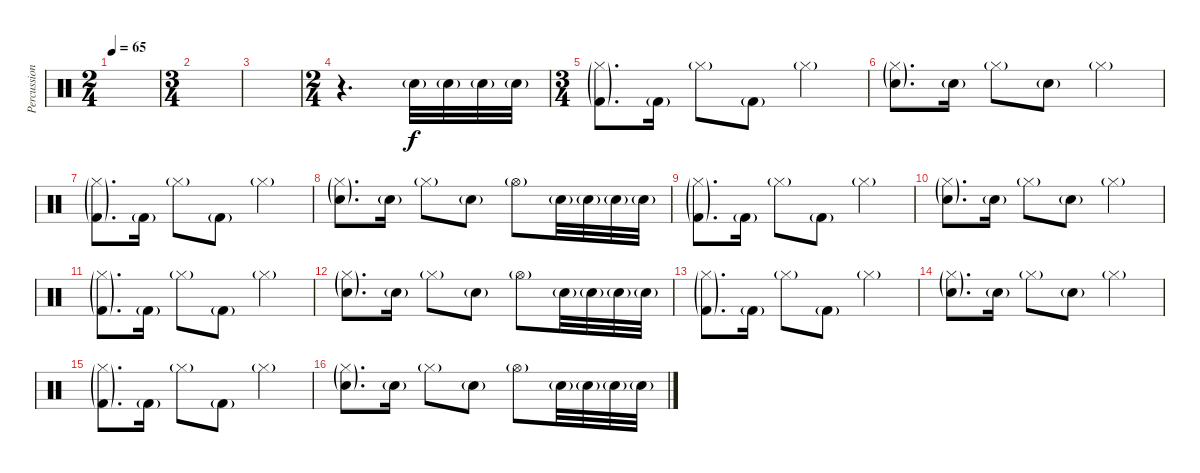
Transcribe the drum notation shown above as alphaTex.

\track ("Percussion" "Percussion") {instrument percussion}
\staff {score}
\articulation defaults
\ts (2 4)
\tempo 65
\clef neutral
\ks c
|
\ts (3 4)
|
|
\ts (2 4)
r.4{d} "Electric Snare (hit)"{g}.32 "Electric Snare (hit)"{g}.32 "Electric Snare (hit)"{g}.32 "Electric Snare (hit)"{g}.32 |
\ts (3 4)
("Hi-Hat (closed)"{g} "Kick (hit) 2"{g}).8{d} "Kick (hit) 2"{g}.16 "Hi-Hat (closed)"{g}.8 "Kick (hit) 2"{g}.8 "Hi-Hat (closed)"{g}.4 |
("Hi-Hat (closed)"{g} "Snare (hit) 2"{g}).8{d} "Snare (hit) 2"{g}.16 "Hi-Hat (closed)"{g}.8 "Snare (hit) 2"{g}.8 "Hi-Hat (closed)"{g}.4 |
("Hi-Hat (closed)"{g} "Kick (hit) 2"{g}).8{d} "Kick (hit) 2"{g}.16 "Hi-Hat (closed)"{g}.8 "Kick (hit) 2"{g}.8 "Hi-Hat (closed)"{g}.4 |
("Hi-Hat (closed)"{g} "Snare (hit) 2"{g}).8{d} "Snare (hit) 2"{g}.16 "Hi-Hat (closed)"{g}.8 "Snare (hit) 2"{g}.8 "Hi-Hat (open)"{g}.8 "Electric Snare (hit)"{g}.32 "Electric Snare (hit)"{g}.32 "Electric Snare (hit)"{g}.32 "Electric Snare (hit)"{g}.32 |
("Hi-Hat (closed)"{g} "Kick (hit) 2"{g}).8{d} "Kick (hit) 2"{g}.16 "Hi-Hat (closed)"{g}.8 "Kick (hit) 2"{g}.8 "Hi-Hat (closed)"{g}.4 |
("Hi-Hat (closed)"{g} "Snare (hit) 2"{g}).8{d} "Snare (hit) 2"{g}.16 "Hi-Hat (closed)"{g}.8 "Snare (hit) 2"{g}.8 "Hi-Hat (closed)"{g}.4 |
("Hi-Hat (closed)"{g} "Kick (hit) 2"{g}).8{d} "Kick (hit) 2"{g}.16 "Hi-Hat (closed)"{g}.8 "Kick (hit) 2"{g}.8 "Hi-Hat (closed)"{g}.4 |
("Hi-Hat (closed)"{g} "Snare (hit) 2"{g}).8{d} "Snare (hit) 2"{g}.16 "Hi-Hat (closed)"{g}.8 "Snare (hit) 2"{g}.8 "Hi-Hat (open)"{g}.8 "Electric Snare (hit)"{g}.32 "Electric Snare (hit)"{g}.32 "Electric Snare (hit)"{g}.32 "Electric Snare (hit)"{g}.32 |
("Hi-Hat (closed)"{g} "Kick (hit) 2"{g}).8{d} "Kick (hit) 2"{g}.16 "Hi-Hat (closed)"{g}.8 "Kick (hit) 2"{g}.8 "Hi-Hat (closed)"{g}.4 |
("Hi-Hat (closed)"{g} "Snare (hit) 2"{g}).8{d} "Snare (hit) 2"{g}.16 "Hi-Hat (closed)"{g}.8 "Snare (hit) 2"{g}.8 "Hi-Hat (closed)"{g}.4 |
("Hi-Hat (closed)"{g} "Kick (hit) 2"{g}).8{d} "Kick (hit) 2"{g}.16 "Hi-Hat (closed)"{g}.8 "Kick (hit) 2"{g}.8 "Hi-Hat (closed)"{g}.4 |
("Hi-Hat (closed)"{g} "Snare (hit) 2"{g}).8{d} "Snare (hit) 2"{g}.16 "Hi-Hat (closed)"{g}.8 "Snare (hit) 2"{g}.8 "Hi-Hat (open)"{g}.8 "Electric Snare (hit)"{g}.32 "Electric Snare (hit)"{g}.32 "Electric Snare (hit)"{g}.32 "Electric Snare (hit)"{g}.32
